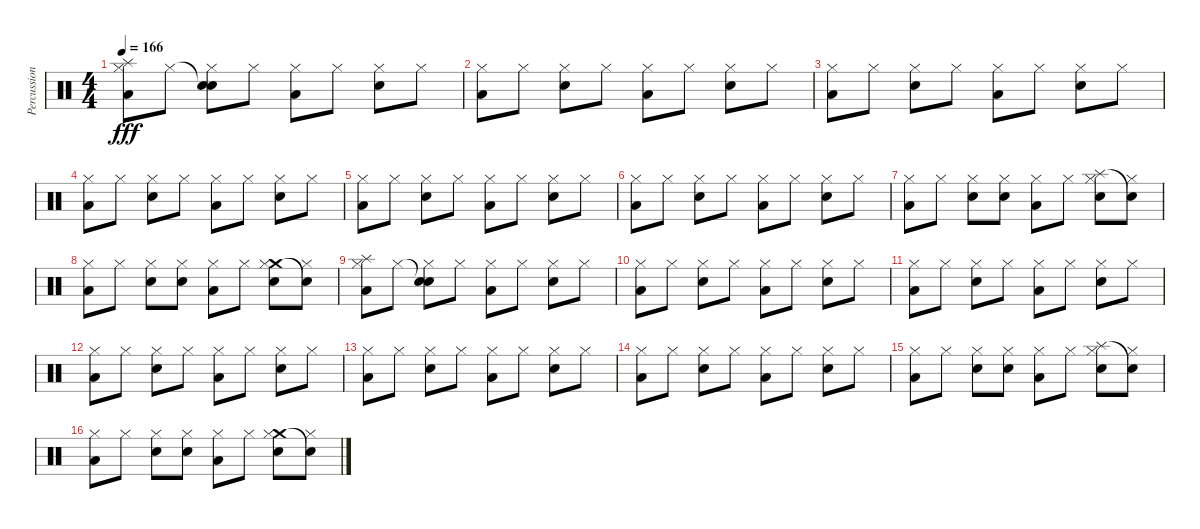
\track ("Percussions" "Percussion") {instrument percussion}
\staff {score}
\articulation defaults
\ts (4 4)
\tempo 166
\clef neutral
\ks c
("Splash (hit)" "Low Tom (hit)" "Hi-Hat (closed)").8{dy fff} "Hi-Hat (closed)".8 ("Snare (hit)"{t} "Snare (hit) 2" "Hi-Hat (closed)").8 "Hi-Hat (closed)".8 ("Low Tom (hit)" "Hi-Hat (closed)").8 "Hi-Hat (closed)".8 ("Snare (hit) 2" "Hi-Hat (closed)").8 "Hi-Hat (closed)".8 |
("Low Tom (hit)" "Hi-Hat (closed)").8 "Hi-Hat (closed)".8 ("Snare (hit) 2" "Hi-Hat (closed)").8 "Hi-Hat (closed)".8 ("Low Tom (hit)" "Hi-Hat (closed)").8 "Hi-Hat (closed)".8 ("Snare (hit) 2" "Hi-Hat (closed)").8 "Hi-Hat (closed)".8 |
("Low Tom (hit)" "Hi-Hat (closed)").8 "Hi-Hat (closed)".8 ("Snare (hit) 2" "Hi-Hat (closed)").8 "Hi-Hat (closed)".8 ("Low Tom (hit)" "Hi-Hat (closed)").8 "Hi-Hat (closed)".8 ("Snare (hit) 2" "Hi-Hat (closed)").8 "Hi-Hat (closed)".8 |
("Low Tom (hit)" "Hi-Hat (closed)").8 "Hi-Hat (closed)".8 ("Snare (hit) 2" "Hi-Hat (closed)").8 "Hi-Hat (closed)".8 ("Low Tom (hit)" "Hi-Hat (closed)").8 "Hi-Hat (closed)".8 ("Snare (hit) 2" "Hi-Hat (closed)").8 "Hi-Hat (closed)".8 |
("Low Tom (hit)" "Hi-Hat (closed)").8 "Hi-Hat (closed)".8 ("Snare (hit) 2" "Hi-Hat (closed)").8 "Hi-Hat (closed)".8 ("Low Tom (hit)" "Hi-Hat (closed)").8 "Hi-Hat (closed)".8 ("Snare (hit) 2" "Hi-Hat (closed)").8 "Hi-Hat (closed)".8 |
("Low Tom (hit)" "Hi-Hat (closed)").8 "Hi-Hat (closed)".8 ("Snare (hit) 2" "Hi-Hat (closed)").8 "Hi-Hat (closed)".8 ("Low Tom (hit)" "Hi-Hat (closed)").8 "Hi-Hat (closed)".8 ("Snare (hit) 2" "Hi-Hat (closed)").8 "Hi-Hat (closed)".8 |
("Low Tom (hit)" "Hi-Hat (closed)").8 "Hi-Hat (closed)".8 ("Snare (hit) 2" "Hi-Hat (closed)").8 ("Snare (hit) 2" "Hi-Hat (closed)").8 ("Low Tom (hit)" "Hi-Hat (closed)").8 "Hi-Hat (closed)".8 ("Splash (hit)" "Snare (hit) 2" "Hi-Hat (closed)").8 ("Snare (hit)"{t} "Hi-Hat (closed)").8 |
("Low Tom (hit)" "Hi-Hat (closed)").8 "Hi-Hat (closed)".8 ("Snare (hit) 2" "Hi-Hat (closed)").8 ("Snare (hit) 2" "Hi-Hat (closed)").8 ("Low Tom (hit)" "Hi-Hat (closed)").8 "Hi-Hat (closed)".8 ("Crash medium (hit)" "Snare (hit) 2" "Hi-Hat (closed)").8 ("Snare (hit)"{t} "Hi-Hat (closed)").8 |
("Splash (hit)" "Low Tom (hit)" "Hi-Hat (closed)").8 "Hi-Hat (closed)".8 ("Snare (hit)"{t} "Snare (hit) 2" "Hi-Hat (closed)").8{volume 13} "Hi-Hat (closed)".8 ("Low Tom (hit)" "Hi-Hat (closed)").8 "Hi-Hat (closed)".8 ("Snare (hit) 2" "Hi-Hat (closed)").8 "Hi-Hat (closed)".8 |
("Low Tom (hit)" "Hi-Hat (closed)").8{volume 10} "Hi-Hat (closed)".8 ("Snare (hit) 2" "Hi-Hat (closed)").8 "Hi-Hat (closed)".8 ("Low Tom (hit)" "Hi-Hat (closed)").8 "Hi-Hat (closed)".8 ("Snare (hit) 2" "Hi-Hat (closed)").8 "Hi-Hat (closed)".8 |
("Low Tom (hit)" "Hi-Hat (closed)").8{volume 7} "Hi-Hat (closed)".8 ("Snare (hit) 2" "Hi-Hat (closed)").8 "Hi-Hat (closed)".8 ("Low Tom (hit)" "Hi-Hat (closed)").8 "Hi-Hat (closed)".8 ("Snare (hit) 2" "Hi-Hat (closed)").8 "Hi-Hat (closed)".8 |
("Low Tom (hit)" "Hi-Hat (closed)").8{volume 5} "Hi-Hat (closed)".8 ("Snare (hit) 2" "Hi-Hat (closed)").8 "Hi-Hat (closed)".8 ("Low Tom (hit)" "Hi-Hat (closed)").8 "Hi-Hat (closed)".8 ("Snare (hit) 2" "Hi-Hat (closed)").8 "Hi-Hat (closed)".8 |
("Low Tom (hit)" "Hi-Hat (closed)").8{volume 4} "Hi-Hat (closed)".8 ("Snare (hit) 2" "Hi-Hat (closed)").8 "Hi-Hat (closed)".8 ("Low Tom (hit)" "Hi-Hat (closed)").8 "Hi-Hat (closed)".8 ("Snare (hit) 2" "Hi-Hat (closed)").8{volume 3} "Hi-Hat (closed)".8 |
("Low Tom (hit)" "Hi-Hat (closed)").8{volume 2} "Hi-Hat (closed)".8 ("Snare (hit) 2" "Hi-Hat (closed)").8 "Hi-Hat (closed)".8 ("Low Tom (hit)" "Hi-Hat (closed)").8 "Hi-Hat (closed)".8 ("Snare (hit) 2" "Hi-Hat (closed)").8{volume 2} "Hi-Hat (closed)".8 |
("Low Tom (hit)" "Hi-Hat (closed)").8{volume 1} "Hi-Hat (closed)".8 ("Snare (hit) 2" "Hi-Hat (closed)").8 ("Snare (hit) 2" "Hi-Hat (closed)").8 ("Low Tom (hit)" "Hi-Hat (closed)").8 "Hi-Hat (closed)".8 ("Splash (hit)" "Snare (hit) 2" "Hi-Hat (closed)").8 ("Snare (hit)"{t} "Hi-Hat (closed)").8 |
("Low Tom (hit)" "Hi-Hat (closed)").8{volume 0} "Hi-Hat (closed)".8 ("Snare (hit) 2" "Hi-Hat (closed)").8 ("Snare (hit) 2" "Hi-Hat (closed)").8 ("Low Tom (hit)" "Hi-Hat (closed)").8 "Hi-Hat (closed)".8 ("Crash medium (hit)" "Snare (hit) 2" "Hi-Hat (closed)").8{volume 0} ("Snare (hit)"{t} "Hi-Hat (closed)").8
